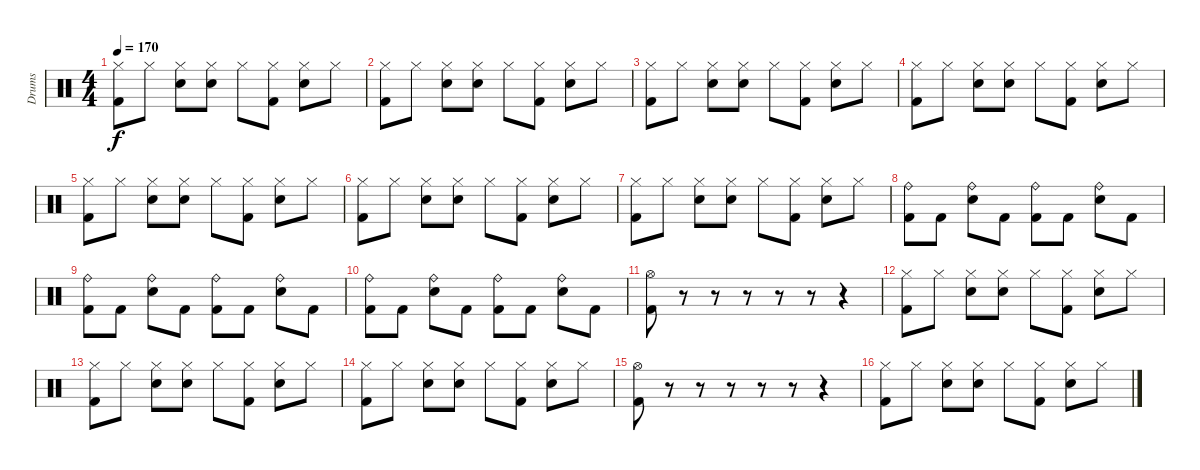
\track ("Drums" "Drums") {instrument percussion}
\staff {score}
\articulation defaults
\ts (4 4)
\tempo 170
\clef neutral
\ks c
("Hi-Hat (closed)" "Kick (hit) 2").8{dy f} "Hi-Hat (closed)".8 ("Hi-Hat (closed)" "Electric Snare (hit)").8 ("Hi-Hat (closed)" "Electric Snare (hit)").8 "Hi-Hat (closed)".8 ("Hi-Hat (closed)" "Kick (hit) 2").8 ("Hi-Hat (closed)" "Electric Snare (hit)").8 "Hi-Hat (closed)".8 |
("Hi-Hat (closed)" "Kick (hit) 2").8 "Hi-Hat (closed)".8 ("Hi-Hat (closed)" "Electric Snare (hit)").8 ("Hi-Hat (closed)" "Electric Snare (hit)").8 "Hi-Hat (closed)".8 ("Hi-Hat (closed)" "Kick (hit) 2").8 ("Hi-Hat (closed)" "Electric Snare (hit)").8 "Hi-Hat (closed)".8 |
("Hi-Hat (closed)" "Kick (hit) 2").8 "Hi-Hat (closed)".8 ("Hi-Hat (closed)" "Electric Snare (hit)").8 ("Hi-Hat (closed)" "Electric Snare (hit)").8 "Hi-Hat (closed)".8 ("Hi-Hat (closed)" "Kick (hit) 2").8 ("Hi-Hat (closed)" "Electric Snare (hit)").8 "Hi-Hat (closed)".8 |
("Hi-Hat (closed)" "Kick (hit) 2").8 "Hi-Hat (closed)".8 ("Hi-Hat (closed)" "Electric Snare (hit)").8 ("Hi-Hat (closed)" "Electric Snare (hit)").8 "Hi-Hat (closed)".8 ("Hi-Hat (closed)" "Kick (hit) 2").8 ("Hi-Hat (closed)" "Electric Snare (hit)").8 "Hi-Hat (closed)".8 |
("Hi-Hat (closed)" "Kick (hit) 2").8 "Hi-Hat (closed)".8 ("Hi-Hat (closed)" "Electric Snare (hit)").8 ("Hi-Hat (closed)" "Electric Snare (hit)").8 "Hi-Hat (closed)".8 ("Hi-Hat (closed)" "Kick (hit) 2").8 ("Hi-Hat (closed)" "Electric Snare (hit)").8 "Hi-Hat (closed)".8 |
("Hi-Hat (closed)" "Kick (hit) 2").8 "Hi-Hat (closed)".8 ("Hi-Hat (closed)" "Electric Snare (hit)").8 ("Hi-Hat (closed)" "Electric Snare (hit)").8 "Hi-Hat (closed)".8 ("Hi-Hat (closed)" "Kick (hit) 2").8 ("Hi-Hat (closed)" "Electric Snare (hit)").8 "Hi-Hat (closed)".8 |
("Hi-Hat (closed)" "Kick (hit) 2").8 "Hi-Hat (closed)".8 ("Hi-Hat (closed)" "Electric Snare (hit)").8 ("Hi-Hat (closed)" "Electric Snare (hit)").8 "Hi-Hat (closed)".8 ("Hi-Hat (closed)" "Kick (hit) 2").8 ("Hi-Hat (closed)" "Electric Snare (hit)").8 "Hi-Hat (closed)".8 |
("Ride (bell)" "Kick (hit) 2").8 "Kick (hit) 2".8 ("Ride (bell)" "Electric Snare (hit)").8 "Kick (hit) 2".8 ("Ride (bell)" "Kick (hit) 2").8 "Kick (hit) 2".8 ("Ride (bell)" "Electric Snare (hit)").8 "Kick (hit) 2".8 |
("Ride (bell)" "Kick (hit) 2").8 "Kick (hit) 2".8 ("Ride (bell)" "Electric Snare (hit)").8 "Kick (hit) 2".8 ("Ride (bell)" "Kick (hit) 2").8 "Kick (hit) 2".8 ("Ride (bell)" "Electric Snare (hit)").8 "Kick (hit) 2".8 |
("Ride (bell)" "Kick (hit) 2").8 "Kick (hit) 2".8 ("Ride (bell)" "Electric Snare (hit)").8 "Kick (hit) 2".8 ("Ride (bell)" "Kick (hit) 2").8 "Kick (hit) 2".8 ("Ride (bell)" "Electric Snare (hit)").8 "Kick (hit) 2".8 |
("Hi-Hat (open)" "Kick (hit) 2").8 r.8 r.8 r.8 r.8 r.8 r.4 |
("Hi-Hat (closed)" "Kick (hit) 2").8 "Hi-Hat (closed)".8 ("Hi-Hat (closed)" "Electric Snare (hit)").8 ("Hi-Hat (closed)" "Electric Snare (hit)").8 "Hi-Hat (closed)".8 ("Hi-Hat (closed)" "Kick (hit) 2").8 ("Hi-Hat (closed)" "Electric Snare (hit)").8 "Hi-Hat (closed)".8 |
("Hi-Hat (closed)" "Kick (hit) 2").8 "Hi-Hat (closed)".8 ("Hi-Hat (closed)" "Electric Snare (hit)").8 ("Hi-Hat (closed)" "Electric Snare (hit)").8 "Hi-Hat (closed)".8 ("Hi-Hat (closed)" "Kick (hit) 2").8 ("Hi-Hat (closed)" "Electric Snare (hit)").8 "Hi-Hat (closed)".8 |
("Hi-Hat (closed)" "Kick (hit) 2").8 "Hi-Hat (closed)".8 ("Hi-Hat (closed)" "Electric Snare (hit)").8 ("Hi-Hat (closed)" "Electric Snare (hit)").8 "Hi-Hat (closed)".8 ("Hi-Hat (closed)" "Kick (hit) 2").8 ("Hi-Hat (closed)" "Electric Snare (hit)").8 "Hi-Hat (closed)".8 |
("Hi-Hat (open)" "Kick (hit) 2").8 r.8 r.8 r.8 r.8 r.8 r.4 |
("Hi-Hat (closed)" "Kick (hit) 2").8 "Hi-Hat (closed)".8 ("Hi-Hat (closed)" "Electric Snare (hit)").8 ("Hi-Hat (closed)" "Electric Snare (hit)").8 "Hi-Hat (closed)".8 ("Hi-Hat (closed)" "Kick (hit) 2").8 ("Hi-Hat (closed)" "Electric Snare (hit)").8 "Hi-Hat (closed)".8
